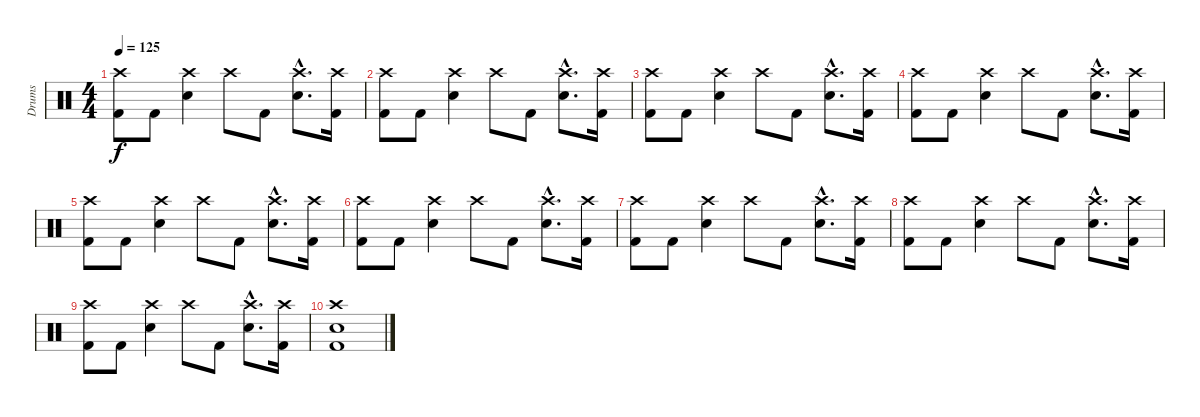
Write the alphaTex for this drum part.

\track ("Drums" "Drums") {instrument percussion}
\staff {score}
\articulation defaults
\ts (4 4)
\tempo 125
\clef neutral
\ks c
("Crash high (hit)" "Kick (hit) 2").8{dy f} "Kick (hit) 2".8 ("Crash high (hit)" "Snare (hit) 2").4 "Crash high (hit)".8 "Kick (hit) 2".8 ("Crash high (hit)"{hac} "Snare (hit) 2"{hac}).8{d} ("Crash high (hit)" "Kick (hit) 2").16 |
("Crash high (hit)" "Kick (hit) 2").8 "Kick (hit) 2".8 ("Crash high (hit)" "Snare (hit) 2").4 "Crash high (hit)".8 "Kick (hit) 2".8 ("Crash high (hit)"{hac} "Snare (hit) 2"{hac}).8{d} ("Crash high (hit)" "Kick (hit) 2").16 |
("Crash high (hit)" "Kick (hit) 2").8 "Kick (hit) 2".8 ("Crash high (hit)" "Snare (hit) 2").4 "Crash high (hit)".8 "Kick (hit) 2".8 ("Crash high (hit)"{hac} "Snare (hit) 2"{hac}).8{d} ("Crash high (hit)" "Kick (hit) 2").16 |
("Crash high (hit)" "Kick (hit) 2").8 "Kick (hit) 2".8 ("Crash high (hit)" "Snare (hit) 2").4 "Crash high (hit)".8 "Kick (hit) 2".8 ("Crash high (hit)"{hac} "Snare (hit) 2"{hac}).8{d} ("Crash high (hit)" "Kick (hit) 2").16 |
("Crash high (hit)" "Kick (hit) 2").8 "Kick (hit) 2".8 ("Crash high (hit)" "Snare (hit) 2").4 "Crash high (hit)".8 "Kick (hit) 2".8 ("Crash high (hit)"{hac} "Snare (hit) 2"{hac}).8{d} ("Crash high (hit)" "Kick (hit) 2").16 |
("Crash high (hit)" "Kick (hit) 2").8 "Kick (hit) 2".8 ("Crash high (hit)" "Snare (hit) 2").4 "Crash high (hit)".8 "Kick (hit) 2".8 ("Crash high (hit)"{hac} "Snare (hit) 2"{hac}).8{d} ("Crash high (hit)" "Kick (hit) 2").16 |
("Crash high (hit)" "Kick (hit) 2").8 "Kick (hit) 2".8 ("Crash high (hit)" "Snare (hit) 2").4 "Crash high (hit)".8 "Kick (hit) 2".8 ("Crash high (hit)"{hac} "Snare (hit) 2"{hac}).8{d} ("Crash high (hit)" "Kick (hit) 2").16 |
("Crash high (hit)" "Kick (hit) 2").8 "Kick (hit) 2".8 ("Crash high (hit)" "Snare (hit) 2").4 "Crash high (hit)".8 "Kick (hit) 2".8 ("Crash high (hit)"{hac} "Snare (hit) 2"{hac}).8{d} ("Crash high (hit)" "Kick (hit) 2").16 |
("Crash high (hit)" "Kick (hit) 2").8 "Kick (hit) 2".8 ("Crash high (hit)" "Snare (hit) 2").4 "Crash high (hit)".8 "Kick (hit) 2".8 ("Crash high (hit)"{hac} "Snare (hit) 2"{hac}).8{d} ("Crash high (hit)" "Kick (hit) 2").16 |
("Snare (hit) 2" "Crash high (hit)" "Kick (hit) 2").1
